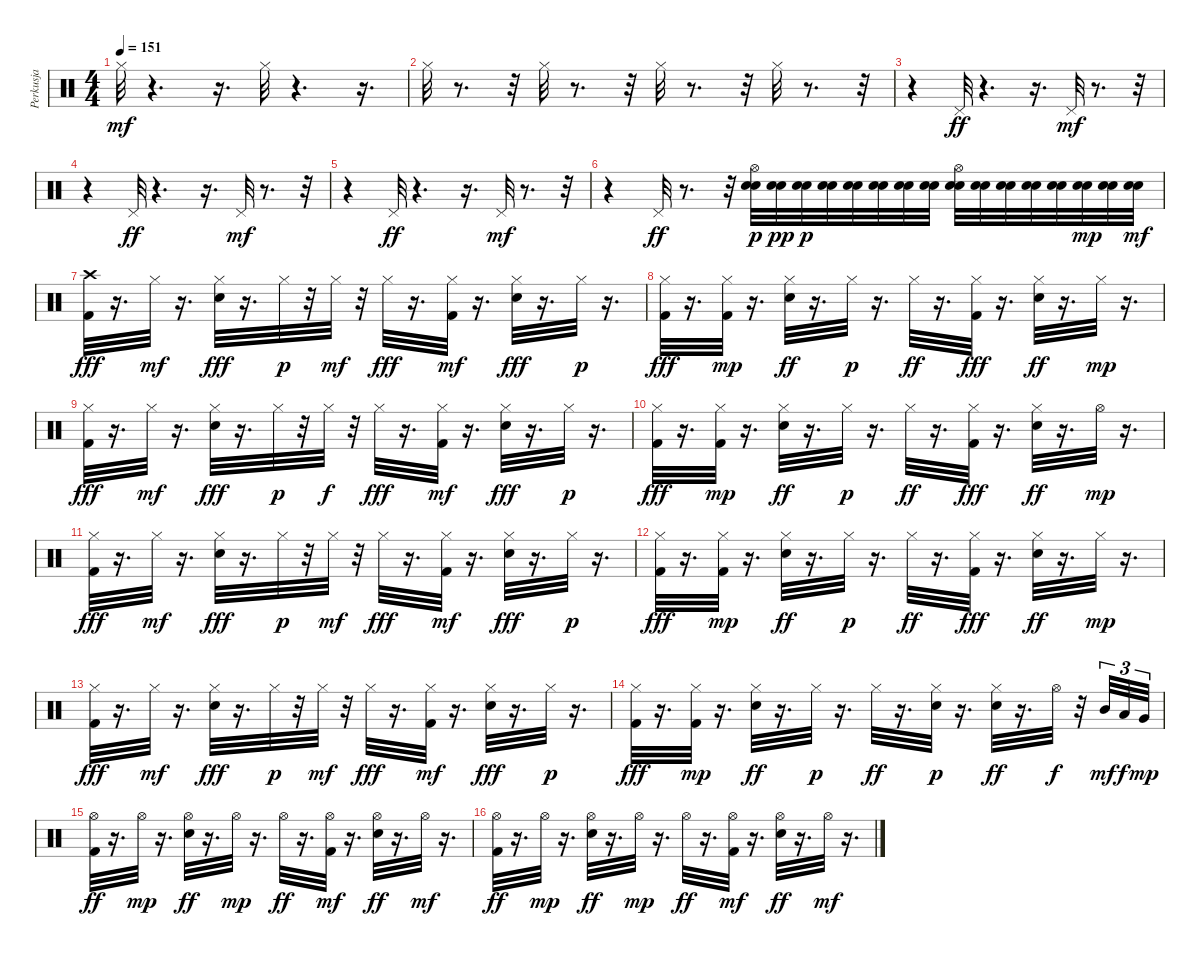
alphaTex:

\track ("Perkusja" "Perkusja") {instrument percussion}
\staff {score}
\articulation defaults
\ts (4 4)
\tempo 151
\clef neutral
\ks c "Hi-Hat (closed)".32{dy mf}
r.4{d} r.16{d} "Hi-Hat (closed)".32{volume 16 balance 8} r.4{d} r.16{d} |
"Hi-Hat (closed)".32 r.8{d} r.32 "Hi-Hat (closed)".32 r.8{d} r.32 "Hi-Hat (closed)".32 r.8{d} r.32 "Hi-Hat (closed)".32 r.8{d} r.32 |
r.4 "Pedal Hi-Hat (hit)".32{dy ff} r.4{d} r.16{d} "Pedal Hi-Hat (hit)".32{dy mf} r.8{d} r.32 |
r.4 "Pedal Hi-Hat (hit)".32{dy ff} r.4{d} r.16{d} "Pedal Hi-Hat (hit)".32{dy mf} r.8{d} r.32 |
r.4 "Pedal Hi-Hat (hit)".32{dy ff} r.4{d} r.16{d} "Pedal Hi-Hat (hit)".32{dy mf} r.8{d} r.32 |
r.4 "Pedal Hi-Hat (hit)".32{dy ff} r.8{d} r.32 ("Hi-Hat (open)" "Electric Snare (hit)" "Electric Snare (hit)").32{dy p} ("Electric Snare (hit)" "Electric Snare (hit)").32{dy pp} ("Electric Snare (hit)" "Electric Snare (hit)").32{dy p} ("Electric Snare (hit)" "Electric Snare (hit)").32 ("Electric Snare (hit)" "Electric Snare (hit)").32 ("Electric Snare (hit)" "Electric Snare (hit)").32 ("Electric Snare (hit)" "Electric Snare (hit)").32 ("Electric Snare (hit)" "Electric Snare (hit)").32 ("Hi-Hat (open)" "Electric Snare (hit)" "Electric Snare (hit)").32 ("Electric Snare (hit)" "Electric Snare (hit)").32 ("Electric Snare (hit)" "Electric Snare (hit)").32 ("Electric Snare (hit)" "Electric Snare (hit)").32 ("Electric Snare (hit)" "Electric Snare (hit)").32 ("Electric Snare (hit)" "Electric Snare (hit)").32{dy mp} ("Electric Snare (hit)" "Electric Snare (hit)").32 ("Electric Snare (hit)" "Electric Snare (hit)").32{dy mf} |
("Crash high (hit)" "Kick (hit) 2").32{dy fff} r.16{d} "Hi-Hat (closed)".32{dy mf} r.16{d} ("Hi-Hat (closed)" "Electric Snare (hit)").32{dy fff} r.16{d} "Hi-Hat (closed)".32{dy p} r.32 "Hi-Hat (closed)".32{dy mf} r.32 "Hi-Hat (closed)".32{dy fff} r.16{d} ("Hi-Hat (closed)" "Kick (hit) 2").32{dy mf} r.16{d} ("Hi-Hat (closed)" "Electric Snare (hit)").32{dy fff} r.16{d} "Hi-Hat (closed)".32{dy p} r.16{d} |
("Hi-Hat (closed)" "Kick (hit) 2").32{dy fff} r.16{d} ("Kick (hit) 2" "Hi-Hat (closed)").32{dy mp} r.16{d} ("Hi-Hat (closed)" "Electric Snare (hit)").32{dy ff} r.16{d} "Hi-Hat (closed)".32{dy p} r.16{d} "Hi-Hat (closed)".32{dy ff} r.16{d} ("Hi-Hat (closed)" "Kick (hit) 2").32{dy fff} r.16{d} ("Hi-Hat (closed)" "Electric Snare (hit)").32{dy ff} r.16{d} "Hi-Hat (closed)".32{dy mp} r.16{d} |
("Hi-Hat (closed)" "Kick (hit) 2").32{dy fff} r.16{d} "Hi-Hat (closed)".32{dy mf} r.16{d} ("Hi-Hat (closed)" "Electric Snare (hit)").32{dy fff} r.16{d} "Hi-Hat (closed)".32{dy p} r.32 "Hi-Hat (closed)".32{dy f} r.32 "Hi-Hat (closed)".32{dy fff} r.16{d} ("Hi-Hat (closed)" "Kick (hit) 2").32{dy mf} r.16{d} ("Hi-Hat (closed)" "Electric Snare (hit)").32{dy fff} r.16{d} "Hi-Hat (closed)".32{dy p} r.16{d} |
("Hi-Hat (closed)" "Kick (hit) 2").32{dy fff} r.16{d} ("Kick (hit) 2" "Hi-Hat (closed)").32{dy mp} r.16{d} ("Hi-Hat (closed)" "Electric Snare (hit)").32{dy ff} r.16{d} "Hi-Hat (closed)".32{dy p} r.16{d} "Hi-Hat (closed)".32{dy ff} r.16{d} ("Hi-Hat (closed)" "Kick (hit) 2").32{dy fff} r.16{d} ("Hi-Hat (closed)" "Electric Snare (hit)").32{dy ff} r.16{d} "Hi-Hat (open)".32{dy mp} r.16{d} |
("Hi-Hat (closed)" "Kick (hit) 2").32{dy fff} r.16{d} "Hi-Hat (closed)".32{dy mf} r.16{d} ("Hi-Hat (closed)" "Electric Snare (hit)").32{dy fff} r.16{d} "Hi-Hat (closed)".32{dy p} r.32 "Hi-Hat (closed)".32{dy mf} r.32 "Hi-Hat (closed)".32{dy fff} r.16{d} ("Hi-Hat (closed)" "Kick (hit) 2").32{dy mf} r.16{d} ("Hi-Hat (closed)" "Electric Snare (hit)").32{dy fff} r.16{d} "Hi-Hat (closed)".32{dy p} r.16{d} |
("Hi-Hat (closed)" "Kick (hit) 2").32{dy fff} r.16{d} ("Kick (hit) 2" "Hi-Hat (closed)").32{dy mp} r.16{d} ("Hi-Hat (closed)" "Electric Snare (hit)").32{dy ff} r.16{d} "Hi-Hat (closed)".32{dy p} r.16{d} "Hi-Hat (closed)".32{dy ff} r.16{d} ("Hi-Hat (closed)" "Kick (hit) 2").32{dy fff} r.16{d} ("Hi-Hat (closed)" "Electric Snare (hit)").32{dy ff} r.16{d} "Hi-Hat (closed)".32{dy mp} r.16{d} |
("Hi-Hat (closed)" "Kick (hit) 2").32{dy fff} r.16{d} "Hi-Hat (closed)".32{dy mf} r.16{d} ("Hi-Hat (closed)" "Electric Snare (hit)").32{dy fff} r.16{d} "Hi-Hat (closed)".32{dy p} r.32 "Hi-Hat (closed)".32{dy mf} r.32 "Hi-Hat (closed)".32{dy fff} r.16{d} ("Hi-Hat (closed)" "Kick (hit) 2").32{dy mf} r.16{d} ("Hi-Hat (closed)" "Electric Snare (hit)").32{dy fff} r.16{d} "Hi-Hat (closed)".32{dy p} r.16{d} |
("Hi-Hat (closed)" "Kick (hit) 2").32{dy fff} r.16{d} ("Kick (hit) 2" "Hi-Hat (closed)").32{dy mp} r.16{d} ("Hi-Hat (closed)" "Electric Snare (hit)").32{dy ff} r.16{d} "Hi-Hat (closed)".32{dy p} r.16{d} "Hi-Hat (closed)".32{dy ff} r.16{d} ("Snare (hit) 2" "Hi-Hat (closed)").32{dy p} r.16{d} ("Snare (hit) 2" "Hi-Hat (closed)").32{dy ff} r.16{d} "Hi-Hat (open)".32{dy f} r.32 "Mid Tom (hit)".32{tu (3 2) dy mf} "Low Tom (hit)".32{tu (3 2) dy f} "Very Low Tom (hit)".32{tu (3 2) dy mp} |
("Kick (hit) 2" "Hi-Hat (open)").32{dy ff} r.16{d} "Hi-Hat (open)".32{dy mp} r.16{d} ("Snare (hit) 2" "Hi-Hat (open)").32{dy ff} r.16{d} "Hi-Hat (open)".32{dy mp} r.16{d} "Hi-Hat (open)".32{dy ff} r.16{d} ("Kick (hit) 2" "Hi-Hat (open)").32{dy mf} r.16{d} ("Snare (hit) 2" "Hi-Hat (open)").32{dy ff} r.16{d} "Hi-Hat (open)".32{dy mf} r.16{d} |
("Kick (hit) 2" "Hi-Hat (open)").32{dy ff} r.16{d} "Hi-Hat (open)".32{dy mp} r.16{d} ("Snare (hit) 2" "Hi-Hat (open)").32{dy ff} r.16{d} "Hi-Hat (open)".32{dy mp} r.16{d} "Hi-Hat (open)".32{dy ff} r.16{d} ("Kick (hit) 2" "Hi-Hat (open)").32{dy mf} r.16{d} ("Snare (hit) 2" "Hi-Hat (open)").32{dy ff} r.16{d} "Hi-Hat (open)".32{dy mf} r.16{d}
